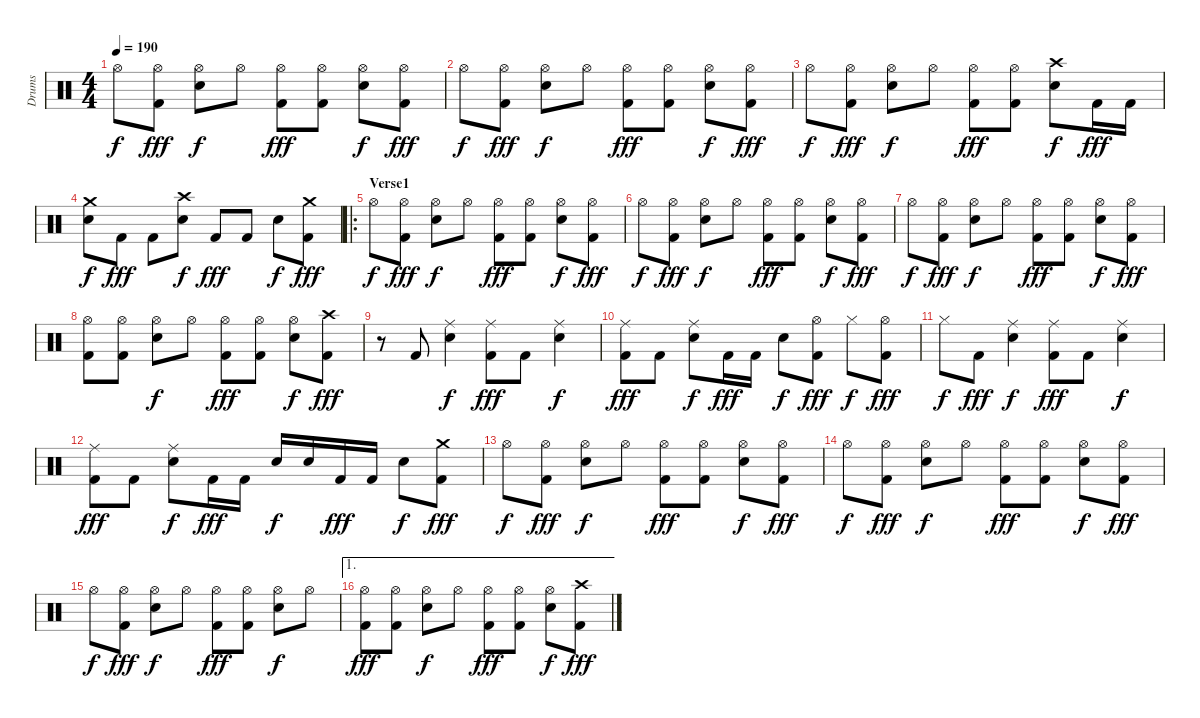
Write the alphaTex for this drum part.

\track ("Drums" "Drums") {instrument percussion}
\staff {score}
\articulation defaults
\ts (4 4)
\tempo 190
\clef neutral
\ks c "Hi-Hat (open)".8{dy f}
("Hi-Hat (open)" "Kick (hit) 2").8{dy fff} ("Hi-Hat (open)" "Electric Snare (hit)").8{dy f} "Hi-Hat (open)".8 ("Hi-Hat (open)" "Kick (hit) 2").8{dy fff} ("Hi-Hat (open)" "Kick (hit) 2").8 ("Hi-Hat (open)" "Electric Snare (hit)").8{dy f} ("Hi-Hat (open)" "Kick (hit) 2").8{dy fff} |
"Hi-Hat (open)".8{dy f} ("Hi-Hat (open)" "Kick (hit) 2").8{dy fff} ("Hi-Hat (open)" "Electric Snare (hit)").8{dy f} "Hi-Hat (open)".8 ("Hi-Hat (open)" "Kick (hit) 2").8{dy fff} ("Hi-Hat (open)" "Kick (hit) 2").8 ("Hi-Hat (open)" "Electric Snare (hit)").8{dy f} ("Hi-Hat (open)" "Kick (hit) 2").8{dy fff} |
"Hi-Hat (open)".8{dy f} ("Hi-Hat (open)" "Kick (hit) 2").8{dy fff} ("Hi-Hat (open)" "Electric Snare (hit)").8{dy f} "Hi-Hat (open)".8 ("Hi-Hat (open)" "Kick (hit) 2").8{dy fff} ("Hi-Hat (open)" "Kick (hit) 2").8 ("Crash high (hit)" "Electric Snare (hit)").8{dy f} "Kick (hit) 2".16{dy fff} "Kick (hit) 2".16 |
("Crash medium (hit)" "Electric Snare (hit)").8{dy f} "Kick (hit) 2".8{dy fff} "Kick (hit) 2".8 ("Crash high (hit)" "Electric Snare (hit)").8{dy f} "Kick (hit) 2".8{dy fff} "Kick (hit) 2".8 "Electric Snare (hit)".8{dy f} ("Crash medium (hit)" "Kick (hit) 2").8{dy fff} |
\ro
\section ("" "Verse1")
"Hi-Hat (open)".8{dy f} ("Hi-Hat (open)" "Kick (hit) 2").8{dy fff} ("Hi-Hat (open)" "Electric Snare (hit)").8{dy f} "Hi-Hat (open)".8 ("Hi-Hat (open)" "Kick (hit) 2").8{dy fff} ("Hi-Hat (open)" "Kick (hit) 2").8 ("Hi-Hat (open)" "Electric Snare (hit)").8{dy f} ("Hi-Hat (open)" "Kick (hit) 2").8{dy fff} |
"Hi-Hat (open)".8{dy f} ("Hi-Hat (open)" "Kick (hit) 2").8{dy fff} ("Hi-Hat (open)" "Electric Snare (hit)").8{dy f} "Hi-Hat (open)".8 ("Hi-Hat (open)" "Kick (hit) 2").8{dy fff} ("Hi-Hat (open)" "Kick (hit) 2").8 ("Hi-Hat (open)" "Electric Snare (hit)").8{dy f} ("Hi-Hat (open)" "Kick (hit) 2").8{dy fff} |
"Hi-Hat (open)".8{dy f} ("Hi-Hat (open)" "Kick (hit) 2").8{dy fff} ("Hi-Hat (open)" "Electric Snare (hit)").8{dy f} "Hi-Hat (open)".8 ("Hi-Hat (open)" "Kick (hit) 2").8{dy fff} ("Hi-Hat (open)" "Kick (hit) 2").8 ("Hi-Hat (open)" "Electric Snare (hit)").8{dy f} ("Hi-Hat (open)" "Kick (hit) 2").8{dy fff} |
("Hi-Hat (open)" "Kick (hit) 2").8 ("Hi-Hat (open)" "Kick (hit) 2").8 ("Hi-Hat (open)" "Electric Snare (hit)").8{dy f} "Hi-Hat (open)".8 ("Hi-Hat (open)" "Kick (hit) 2").8{dy fff} ("Hi-Hat (open)" "Kick (hit) 2").8 ("Hi-Hat (open)" "Electric Snare (hit)").8{dy f} ("Crash high (hit)" "Kick (hit) 2").8{dy fff} |
r.8 "Kick (hit) 2".8 ("Ride (middle)" "Electric Snare (hit)").4{dy f} ("Ride (middle)" "Kick (hit) 2").8{dy fff} "Kick (hit) 2".8 ("Ride (middle)" "Electric Snare (hit)").4{dy f} |
("Ride (middle)" "Kick (hit) 2").8{dy fff} "Kick (hit) 2".8 ("Ride (middle)" "Electric Snare (hit)").8{dy f} "Kick (hit) 2".16{dy fff} "Kick (hit) 2".16 "Electric Snare (hit)".8{dy f} ("Hi-Hat (open)" "Kick (hit) 2").8{dy fff} "Hi-Hat (closed)".8{dy f} ("Hi-Hat (open)" "Kick (hit) 2").8{dy fff} |
"Hi-Hat (closed)".8{dy f} "Kick (hit) 2".8{dy fff} ("Ride (middle)" "Electric Snare (hit)").4{dy f} ("Ride (middle)" "Kick (hit) 2").8{dy fff} "Kick (hit) 2".8 ("Ride (middle)" "Electric Snare (hit)").4{dy f} |
("Ride (middle)" "Kick (hit) 2").8{dy fff} "Kick (hit) 2".8 ("Ride (middle)" "Electric Snare (hit)").8{dy f} "Kick (hit) 2".16{dy fff} "Kick (hit) 2".16 "Electric Snare (hit)".16{dy f} "Electric Snare (hit)".16 "Kick (hit) 2".16{dy fff} "Kick (hit) 2".16 "Electric Snare (hit)".8{dy f} ("Crash medium (hit)" "Kick (hit) 2").8{dy fff} |
"Hi-Hat (open)".8{dy f} ("Hi-Hat (open)" "Kick (hit) 2").8{dy fff} ("Hi-Hat (open)" "Electric Snare (hit)").8{dy f} "Hi-Hat (open)".8 ("Hi-Hat (open)" "Kick (hit) 2").8{dy fff} ("Hi-Hat (open)" "Kick (hit) 2").8 ("Hi-Hat (open)" "Electric Snare (hit)").8{dy f} ("Hi-Hat (open)" "Kick (hit) 2").8{dy fff} |
"Hi-Hat (open)".8{dy f} ("Hi-Hat (open)" "Kick (hit) 2").8{dy fff} ("Hi-Hat (open)" "Electric Snare (hit)").8{dy f} "Hi-Hat (open)".8 ("Hi-Hat (open)" "Kick (hit) 2").8{dy fff} ("Hi-Hat (open)" "Kick (hit) 2").8 ("Hi-Hat (open)" "Electric Snare (hit)").8{dy f} ("Hi-Hat (open)" "Kick (hit) 2").8{dy fff} |
"Hi-Hat (open)".8{dy f} ("Hi-Hat (open)" "Kick (hit) 2").8{dy fff} ("Hi-Hat (open)" "Electric Snare (hit)").8{dy f} "Hi-Hat (open)".8 ("Hi-Hat (open)" "Kick (hit) 2").8{dy fff} ("Hi-Hat (open)" "Kick (hit) 2").8 ("Hi-Hat (open)" "Electric Snare (hit)").8{dy f} "Hi-Hat (open)".8 |
\ae 1
("Hi-Hat (open)" "Kick (hit) 2").8{dy fff} ("Hi-Hat (open)" "Kick (hit) 2").8 ("Hi-Hat (open)" "Electric Snare (hit)").8{dy f} "Hi-Hat (open)".8 ("Hi-Hat (open)" "Kick (hit) 2").8{dy fff} ("Hi-Hat (open)" "Kick (hit) 2").8 ("Hi-Hat (open)" "Electric Snare (hit)").8{dy f} ("Crash high (hit)" "Kick (hit) 2").8{dy fff}
